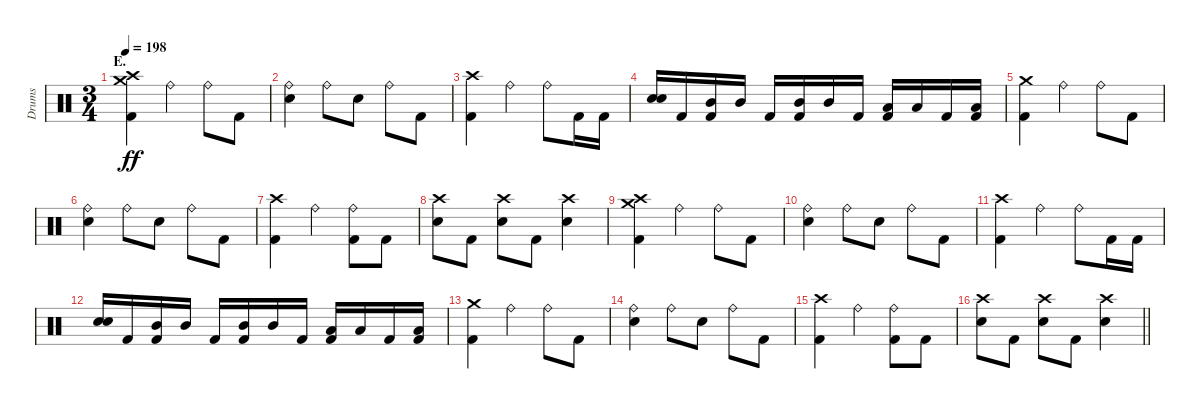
\track ("Drums" "Drums") {instrument percussion}
\staff {score}
\articulation defaults
\ts (3 4)
\section ("" "E.")
\tempo 198
\clef neutral
\ks c
("Crash medium (hit)" "Crash high (hit)" "Kick (hit) 2").4{dy ff volume 14} "Ride (bell)".4 "Ride (bell)".8 "Kick (hit) 2".8 |
("Ride (bell)" "Electric Snare (hit)").4 "Ride (bell)".8 "Electric Snare (hit)".8 "Ride (bell)".8 "Kick (hit) 2".8 |
("Crash high (hit)" "Kick (hit) 2").4 "Ride (bell)".4 "Ride (bell)".8 "Kick (hit) 2".16 "Kick (hit) 2".16 |
("Electric Snare (hit)" "Electric Snare (hit)").16{bu 60} "Kick (hit) 2".16 ("Mid Tom (hit)" "Kick (hit) 2").16 "Mid Tom (hit)".16 "Kick (hit) 2".16 ("Mid Tom (hit)" "Kick (hit) 2").16 "Mid Tom (hit)".16 "Kick (hit) 2".16 ("Low Tom (hit)" "Kick (hit) 2").16 "Low Tom (hit)".16 "Kick (hit) 2".16 ("Low Tom (hit)" "Kick (hit) 2").16 |
("Crash medium (hit)" "Kick (hit) 2").4 "Ride (bell)".4 "Ride (bell)".8 "Kick (hit) 2".8 |
("Ride (bell)" "Electric Snare (hit)").4 "Ride (bell)".8 "Electric Snare (hit)".8 "Ride (bell)".8 "Kick (hit) 2".8 |
("Crash high (hit)" "Kick (hit) 2").4 "Ride (bell)".4 ("Ride (bell)" "Kick (hit) 2").8 "Kick (hit) 2".8 |
("Crash high (hit)" "Electric Snare (hit)").8 "Kick (hit) 2".8 ("Crash high (hit)" "Electric Snare (hit)").8 "Kick (hit) 2".8 ("Crash high (hit)" "Electric Snare (hit)").4 |
("Crash medium (hit)" "Crash high (hit)" "Kick (hit) 2").4 "Ride (bell)".4 "Ride (bell)".8 "Kick (hit) 2".8 |
("Ride (bell)" "Electric Snare (hit)").4 "Ride (bell)".8 "Electric Snare (hit)".8 "Ride (bell)".8 "Kick (hit) 2".8 |
("Crash high (hit)" "Kick (hit) 2").4 "Ride (bell)".4 "Ride (bell)".8 "Kick (hit) 2".16 "Kick (hit) 2".16 |
("Electric Snare (hit)" "Electric Snare (hit)").16{bu 60} "Kick (hit) 2".16 ("Mid Tom (hit)" "Kick (hit) 2").16 "Mid Tom (hit)".16 "Kick (hit) 2".16 ("Mid Tom (hit)" "Kick (hit) 2").16 "Mid Tom (hit)".16 "Kick (hit) 2".16 ("Low Tom (hit)" "Kick (hit) 2").16 "Low Tom (hit)".16 "Kick (hit) 2".16 ("Low Tom (hit)" "Kick (hit) 2").16 |
("Crash medium (hit)" "Kick (hit) 2").4 "Ride (bell)".4 "Ride (bell)".8 "Kick (hit) 2".8 |
("Ride (bell)" "Electric Snare (hit)").4 "Ride (bell)".8 "Electric Snare (hit)".8 "Ride (bell)".8 "Kick (hit) 2".8 |
("Crash high (hit)" "Kick (hit) 2").4 "Ride (bell)".4 ("Ride (bell)" "Kick (hit) 2").8 "Kick (hit) 2".8 |
\barLineRight lightlight
("Crash high (hit)" "Electric Snare (hit)").8 "Kick (hit) 2".8 ("Crash high (hit)" "Electric Snare (hit)").8 "Kick (hit) 2".8 ("Crash high (hit)" "Electric Snare (hit)").4
